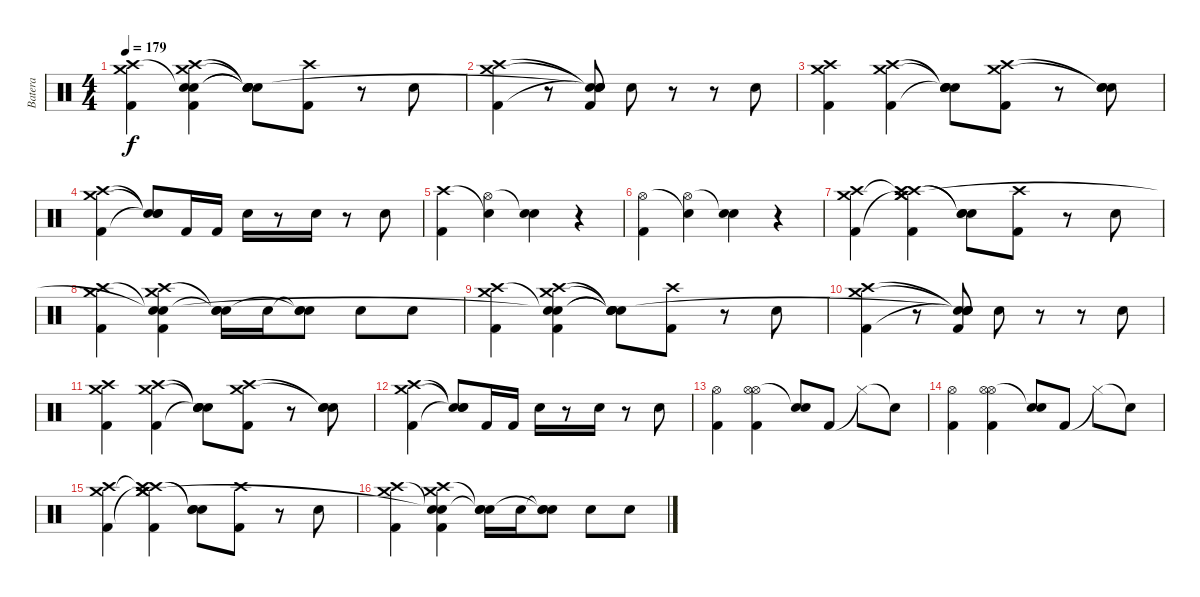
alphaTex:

\track ("Batera" "Batera") {instrument percussion}
\staff {score}
\articulation defaults
\ts (4 4)
\tempo 179
\clef neutral
\ks c
("Crash high (hit)" "Crash medium (hit)" "Kick (hit) 2").4{dy f} ("Snare (hit)"{t} "Crash high (hit)" "Crash medium (hit)" "Snare (hit)"{t} "Kick (hit) 2").4 ("Snare (hit)"{t} "Snare (hit)"{t} "Snare (hit)"{t} "Snare (hit)"{t} "Electric Snare (hit)").8 ("Crash high (hit)" "Kick (hit) 2").8 r.8 "Electric Snare (hit)".8 |
("Crash medium (hit)" "Crash high (hit)" "Kick (hit) 2").4 r.8 ("Snare (hit)"{t} "Snare (hit)"{t} "Snare (hit)"{t} "Snare (hit)"{t} "Kick (hit) 2").8 "Electric Snare (hit)".8 r.8 r.8 "Electric Snare (hit)".8 |
("Crash medium (hit)" "Crash high (hit)" "Kick (hit) 2").4 ("Crash medium (hit)" "Crash high (hit)" "Kick (hit) 2").4 ("Snare (hit)"{t} "Snare (hit)"{t} "Snare (hit)"{t} "Electric Snare (hit)").8 ("Crash medium (hit)" "Crash high (hit)" "Kick (hit) 2").8 r.8 ("Snare (hit)"{t} "Snare (hit)"{t} "Electric Snare (hit)").8 |
("Crash high (hit)" "Crash medium (hit)" "Kick (hit) 2").4 ("Snare (hit)"{t} "Snare (hit)"{t} "Snare (hit)"{t}).8 "Kick (hit) 2".16 "Kick (hit) 2".16 "Electric Snare (hit)".16 r.8 "Electric Snare (hit)".16 r.8 "Electric Snare (hit)".8 |
("Crash high (hit)" "Kick (hit) 2").4 ("Snare (hit)"{t} "Hi-Hat (open)").4 ("Electric Snare (hit)" "Snare (hit)"{t}).4 r.4 |
("Hi-Hat (open)" "Kick (hit) 2").4 ("Snare (hit)"{t} "Hi-Hat (open)").4 ("Electric Snare (hit)" "Snare (hit)"{t}).4 r.4 |
("Crash high (hit)" "Crash medium (hit)" "Kick (hit) 2").4 ("Crash high (hit)" "Crash high (hit)"{t} "Crash medium (hit)"{t} "Crash medium (hit)" "Kick (hit) 2").4 ("Snare (hit)"{t} "Snare (hit)"{t} "Electric Snare (hit)").8 ("Crash high (hit)" "Kick (hit) 2").8 r.8 "Electric Snare (hit)".8 |
("Crash high (hit)" "Crash medium (hit)" "Kick (hit) 2").4 ("Snare (hit)"{t} "Crash high (hit)" "Crash medium (hit)" "Snare (hit)"{t} "Kick (hit) 2").4 ("Snare (hit)"{t} "Snare (hit)"{t} "Electric Snare (hit)").16 "Electric Snare (hit)".16 ("Snare (hit)"{t} "Snare (hit)"{t} "Electric Snare (hit)").8 "Electric Snare (hit)".8 "Electric Snare (hit)".8 |
("Crash high (hit)" "Crash medium (hit)" "Kick (hit) 2").4 ("Snare (hit)"{t} "Crash high (hit)" "Crash medium (hit)" "Snare (hit)"{t} "Kick (hit) 2").4 ("Snare (hit)"{t} "Snare (hit)"{t} "Snare (hit)"{t} "Snare (hit)"{t} "Electric Snare (hit)").8 ("Crash high (hit)" "Kick (hit) 2").8 r.8 "Electric Snare (hit)".8 |
("Crash medium (hit)" "Crash high (hit)" "Kick (hit) 2").4 r.8 ("Snare (hit)"{t} "Snare (hit)"{t} "Snare (hit)"{t} "Snare (hit)"{t} "Kick (hit) 2").8 "Electric Snare (hit)".8 r.8 r.8 "Electric Snare (hit)".8 |
("Crash medium (hit)" "Crash high (hit)" "Kick (hit) 2").4 ("Crash medium (hit)" "Crash high (hit)" "Kick (hit) 2").4 ("Snare (hit)"{t} "Snare (hit)"{t} "Snare (hit)"{t} "Electric Snare (hit)").8 ("Crash medium (hit)" "Crash high (hit)" "Kick (hit) 2").8 r.8 ("Snare (hit)"{t} "Snare (hit)"{t} "Electric Snare (hit)").8 |
("Crash high (hit)" "Crash medium (hit)" "Kick (hit) 2").4 ("Snare (hit)"{t} "Snare (hit)"{t} "Snare (hit)"{t}).8 "Kick (hit) 2".16 "Kick (hit) 2".16 "Electric Snare (hit)".16 r.8 "Electric Snare (hit)".16 r.8 "Electric Snare (hit)".8 |
("Hi-Hat (open)" "Kick (hit) 2").4 ("Hi-Hat (open)" "Hi-Hat (open)" "Kick (hit) 2").4 ("Electric Snare (hit)" "Snare (hit)"{t}).8 "Kick (hit) 2".8 "Hi-Hat (closed)"{t}.8 "Snare (hit)"{t}.8 |
("Hi-Hat (open)" "Kick (hit) 2").4 ("Hi-Hat (open)" "Hi-Hat (open)" "Kick (hit) 2").4 ("Electric Snare (hit)" "Snare (hit)"{t}).8 "Kick (hit) 2".8 "Hi-Hat (closed)"{t}.8 "Snare (hit)"{t}.8 |
("Crash high (hit)" "Crash medium (hit)" "Kick (hit) 2").4 ("Crash high (hit)" "Crash high (hit)"{t} "Crash medium (hit)"{t} "Crash medium (hit)" "Kick (hit) 2").4 ("Snare (hit)"{t} "Snare (hit)"{t} "Electric Snare (hit)").8 ("Crash high (hit)" "Kick (hit) 2").8 r.8 "Electric Snare (hit)".8 |
("Crash high (hit)" "Crash medium (hit)" "Kick (hit) 2").4 ("Snare (hit)"{t} "Crash high (hit)" "Crash medium (hit)" "Snare (hit)"{t} "Kick (hit) 2").4 ("Snare (hit)"{t} "Snare (hit)"{t} "Electric Snare (hit)").16 "Electric Snare (hit)".16 ("Snare (hit)"{t} "Snare (hit)"{t} "Electric Snare (hit)").8 "Electric Snare (hit)".8 "Electric Snare (hit)".8
